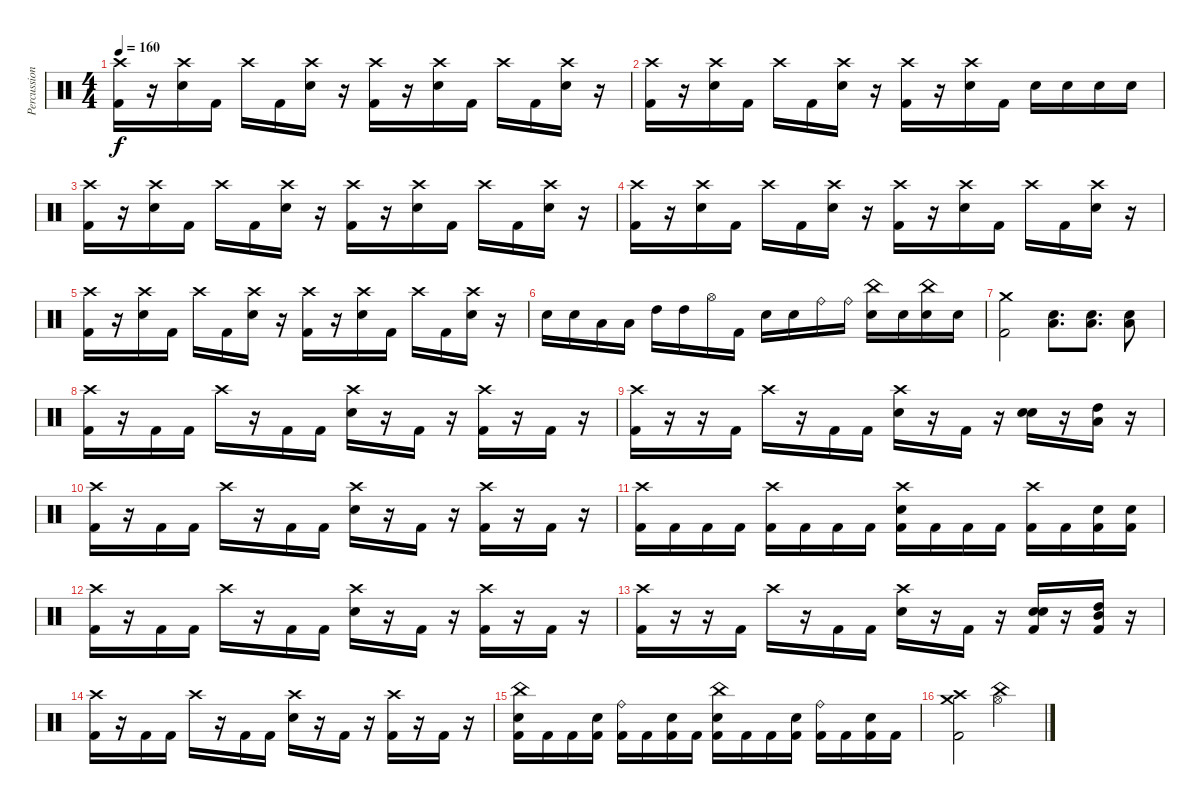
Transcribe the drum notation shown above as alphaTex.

\track ("Percussioni" "Percussion") {instrument percussion}
\staff {score}
\articulation defaults
\ts (4 4)
\tempo 160
\clef neutral
\ks c
("Crash high (hit)" "Kick (hit) 2").16{dy f} r.16 ("Crash high (hit)" "Electric Snare (hit)").16 "Kick (hit) 2".16 "Crash high (hit)".16 "Kick (hit) 2".16 ("Crash high (hit)" "Electric Snare (hit)").16 r.16 ("Crash high (hit)" "Kick (hit) 2").16 r.16 ("Crash high (hit)" "Electric Snare (hit)").16 "Kick (hit) 2".16 "Crash high (hit)".16 "Kick (hit) 2".16 ("Crash high (hit)" "Electric Snare (hit)").16 r.16 |
("Crash high (hit)" "Kick (hit) 2").16 r.16 ("Crash high (hit)" "Electric Snare (hit)").16 "Kick (hit) 2".16 "Crash high (hit)".16 "Kick (hit) 2".16 ("Crash high (hit)" "Electric Snare (hit)").16 r.16 ("Crash high (hit)" "Kick (hit) 2").16 r.16 ("Crash high (hit)" "Electric Snare (hit)").16 "Kick (hit) 2".16 "Electric Snare (hit)".16 "Electric Snare (hit)".16 "Electric Snare (hit)".16 "Electric Snare (hit)".16 |
("Crash high (hit)" "Kick (hit) 2").16 r.16 ("Crash high (hit)" "Electric Snare (hit)").16 "Kick (hit) 2".16 "Crash high (hit)".16 "Kick (hit) 2".16 ("Crash high (hit)" "Electric Snare (hit)").16 r.16 ("Crash high (hit)" "Kick (hit) 2").16 r.16 ("Crash high (hit)" "Electric Snare (hit)").16 "Kick (hit) 2".16 "Crash high (hit)".16 "Kick (hit) 2".16 ("Crash high (hit)" "Electric Snare (hit)").16 r.16 |
("Crash high (hit)" "Kick (hit) 2").16 r.16 ("Crash high (hit)" "Electric Snare (hit)").16 "Kick (hit) 2".16 "Crash high (hit)".16 "Kick (hit) 2".16 ("Crash high (hit)" "Electric Snare (hit)").16 r.16 ("Crash high (hit)" "Kick (hit) 2").16 r.16 ("Crash high (hit)" "Electric Snare (hit)").16 "Kick (hit) 2".16 "Crash high (hit)".16 "Kick (hit) 2".16 ("Crash high (hit)" "Electric Snare (hit)").16 r.16 |
("Crash high (hit)" "Kick (hit) 2").16 r.16 ("Crash high (hit)" "Electric Snare (hit)").16 "Kick (hit) 2".16 "Crash high (hit)".16 "Kick (hit) 2".16 ("Crash high (hit)" "Electric Snare (hit)").16 r.16 ("Crash high (hit)" "Kick (hit) 2").16 r.16 ("Crash high (hit)" "Electric Snare (hit)").16 "Kick (hit) 2".16 "Crash high (hit)".16 "Kick (hit) 2".16 ("Crash high (hit)" "Electric Snare (hit)").16 r.16 |
"Electric Snare (hit)".16 "Electric Snare (hit)".16 "Low Tom (hit)".16 "Low Tom (hit)".16 "High Tom (hit)".16 "High Tom (hit)".16 "Hi-Hat (open)".16 "Kick (hit) 2".16 "Electric Snare (hit)".16 "Electric Snare (hit)".16 "Ride (bell)".16 "Ride (bell)".16 ("China (hit)" "Electric Snare (hit)").16 "Electric Snare (hit)".16 ("China (hit)" "Electric Snare (hit)").16 "Electric Snare (hit)".16 |
("Crash medium (hit)" "Kick (hit) 2").2 ("Electric Snare (hit)" "Low Tom (hit)").8{d} ("Electric Snare (hit)" "Low Tom (hit)").8{d} ("Electric Snare (hit)" "Low Tom (hit)").8 |
("Crash high (hit)" "Kick (hit) 2").16 r.16 "Kick (hit) 2".16 "Kick (hit) 2".16 "Crash high (hit)".16 r.16 "Kick (hit) 2".16 "Kick (hit) 2".16 ("Crash high (hit)" "Electric Snare (hit)").16 r.16 "Kick (hit) 2".16 r.16 ("Crash high (hit)" "Kick (hit) 2").16 r.16 "Kick (hit) 2".16 r.16 |
("Crash high (hit)" "Kick (hit) 2").16 r.16 r.16 "Kick (hit) 2".16 "Crash high (hit)".16 r.16 "Kick (hit) 2".16 "Kick (hit) 2".16 ("Crash high (hit)" "Electric Snare (hit)").16 r.16 "Kick (hit) 2".16 r.16 ("Electric Snare (hit)" "Electric Snare (hit)").16 r.16 ("High Tom (hit)" "Low Tom (hit)").16 r.16 |
("Crash high (hit)" "Kick (hit) 2").16 r.16 "Kick (hit) 2".16 "Kick (hit) 2".16 "Crash high (hit)".16 r.16 "Kick (hit) 2".16 "Kick (hit) 2".16 ("Crash high (hit)" "Electric Snare (hit)").16 r.16 "Kick (hit) 2".16 r.16 ("Crash high (hit)" "Kick (hit) 2").16 r.16 "Kick (hit) 2".16 r.16 |
("Crash high (hit)" "Kick (hit) 2").16 "Kick (hit) 2".16 "Kick (hit) 2".16 "Kick (hit) 2".16 ("Crash high (hit)" "Kick (hit) 2").16 "Kick (hit) 2".16 "Kick (hit) 2".16 "Kick (hit) 2".16 ("Crash high (hit)" "Electric Snare (hit)" "Kick (hit) 2").16 "Kick (hit) 2".16 "Kick (hit) 2".16 "Kick (hit) 2".16 ("Crash high (hit)" "Kick (hit) 2").16 "Kick (hit) 2".16 ("Electric Snare (hit)" "Kick (hit) 2").16 ("Electric Snare (hit)" "Kick (hit) 2").16 |
("Crash high (hit)" "Kick (hit) 2").16 r.16 "Kick (hit) 2".16 "Kick (hit) 2".16 "Crash high (hit)".16 r.16 "Kick (hit) 2".16 "Kick (hit) 2".16 ("Crash high (hit)" "Electric Snare (hit)").16 r.16 "Kick (hit) 2".16 r.16 ("Crash high (hit)" "Kick (hit) 2").16 r.16 "Kick (hit) 2".16 r.16 |
("Crash high (hit)" "Kick (hit) 2").16 r.16 r.16 "Kick (hit) 2".16 "Crash high (hit)".16 r.16 "Kick (hit) 2".16 "Kick (hit) 2".16 ("Crash high (hit)" "Electric Snare (hit)").16 r.16 "Kick (hit) 2".16 r.16 ("Electric Snare (hit)" "Electric Snare (hit)" "Kick (hit) 2").16 r.16 ("High Tom (hit)" "Mid Tom (hit)" "Kick (hit) 2").16 r.16 |
("Crash high (hit)" "Kick (hit) 2").16 r.16 "Kick (hit) 2".16 "Kick (hit) 2".16 "Crash high (hit)".16 r.16 "Kick (hit) 2".16 "Kick (hit) 2".16 ("Crash high (hit)" "Electric Snare (hit)").16 r.16 "Kick (hit) 2".16 r.16 ("Crash high (hit)" "Kick (hit) 2").16 r.16 "Kick (hit) 2".16 r.16 |
("China (hit)" "Electric Snare (hit)" "Kick (hit) 2").16 "Kick (hit) 2".16 "Kick (hit) 2".16 ("Electric Snare (hit)" "Kick (hit) 2").16 ("Ride (bell)" "Kick (hit) 2").16 "Kick (hit) 2".16 ("Electric Snare (hit)" "Kick (hit) 2").16 "Kick (hit) 2".16 ("China (hit)" "Electric Snare (hit)" "Kick (hit) 2").16 "Kick (hit) 2".16 "Kick (hit) 2".16 ("Electric Snare (hit)" "Kick (hit) 2").16 ("Ride (bell)" "Kick (hit) 2").16 "Kick (hit) 2".16 ("Electric Snare (hit)" "Kick (hit) 2").16 "Kick (hit) 2".16 |
("Crash medium (hit)" "Crash high (hit)" "Kick (hit) 2").2 ("Hi-Hat (open)" "China (hit)").2
